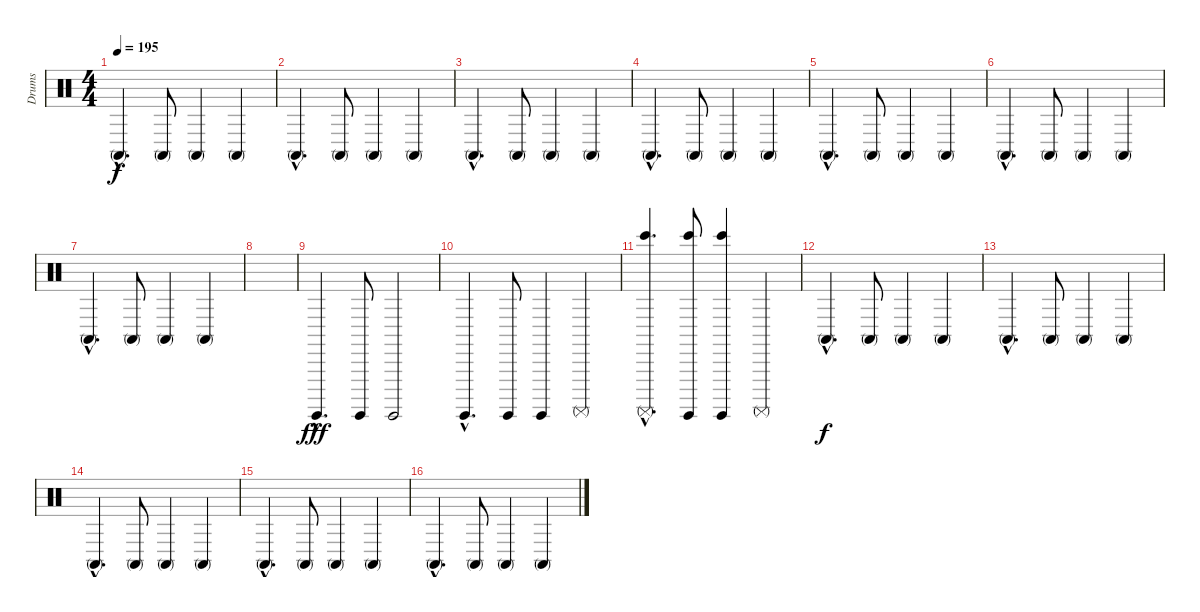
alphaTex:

\track ("Drums" "Drums") {instrument percussion}
\staff {score}
\articulation defaults
\ts (4 4)
\tempo 195
\clef neutral
\ks c "Conga high (mute)"{hac}.4{d dy f} "Conga high (mute)".8 "Conga high (mute)".4 "Conga high (mute)".4
|
"Conga high (mute)"{hac}.4{d} "Conga high (mute)".8 "Conga high (mute)".4 "Conga high (mute)".4 |
"Conga high (mute)"{hac}.4{d} "Conga high (mute)".8 "Conga high (mute)".4 "Conga high (mute)".4 |
"Conga high (mute)"{hac}.4{d} "Conga high (mute)".8 "Conga high (mute)".4 "Conga high (mute)".4 |
"Conga high (mute)"{hac}.4{d} "Conga high (mute)".8 "Conga high (mute)".4 "Conga high (mute)".4 |
"Conga high (mute)"{hac}.4{d} "Conga high (mute)".8 "Conga high (mute)".4 "Conga high (mute)".4 |
"Conga high (mute)"{hac}.4{d} "Conga high (mute)".8 "Conga high (mute)".4 "Conga high (mute)".4 |
|
"Surdo (hit)"{hac}.4{d dy fff} "Surdo (hit)".8 "Surdo (hit)".2 |
"Surdo (hit)"{hac}.4{d} "Surdo (hit)".8 "Surdo (hit)".4 "Surdo (mute)".4 |
("Surdo (mute)"{hac} "Bongo High (hit)"{hac}).4{d} ("Surdo (hit)" "Bongo High (hit)").8 ("Surdo (hit)" "Bongo High (hit)").4 "Surdo (mute)".4 |
"Conga high (mute)"{hac}.4{d dy f} "Conga high (mute)".8 "Conga high (mute)".4 "Conga high (mute)".4 |
"Conga high (mute)"{hac}.4{d} "Conga high (mute)".8 "Conga high (mute)".4 "Conga high (mute)".4 |
"Conga high (mute)"{hac}.4{d} "Conga high (mute)".8 "Conga high (mute)".4 "Conga high (mute)".4 |
"Conga high (mute)"{hac}.4{d} "Conga high (mute)".8 "Conga high (mute)".4 "Conga high (mute)".4 |
"Conga high (mute)"{hac}.4{d} "Conga high (mute)".8 "Conga high (mute)".4 "Conga high (mute)".4
